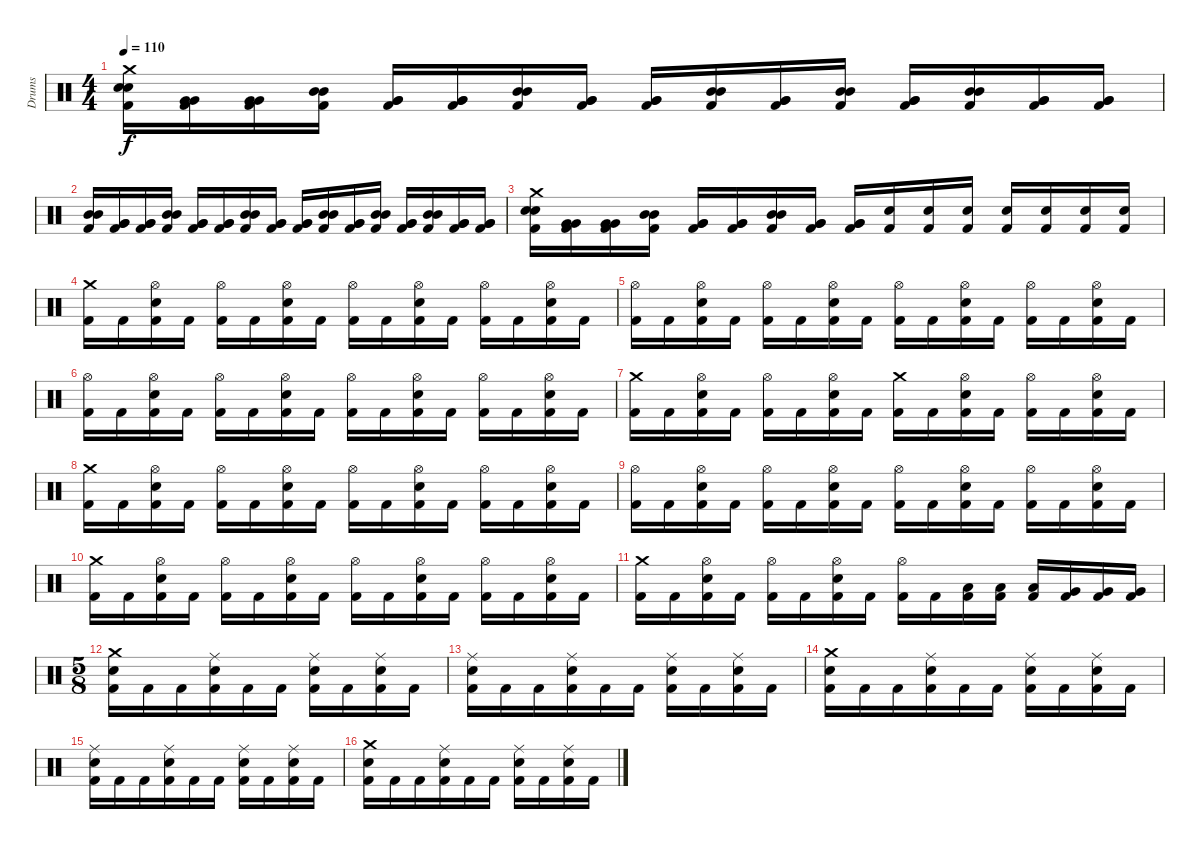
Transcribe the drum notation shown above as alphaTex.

\track ("Drums" "Drums") {instrument percussion}
\staff {score}
\articulation defaults
\ts (4 4)
\tempo 110
\clef neutral
\ks c
("Crash medium (hit)" "Electric Snare (hit)" "Electric Snare (hit)" "Kick (hit) 2").16{dy f} ("Very Low Tom (hit)" "Very Low Tom (hit)" "Kick (hit) 2").16 ("Very Low Tom (hit)" "Very Low Tom (hit)" "Kick (hit) 2").16 ("Mid Tom (hit)" "Mid Tom (hit)" "Kick (hit) 2").16 ("Very Low Tom (hit)" "Very Low Tom (hit)" "Kick (hit) 2").16 ("Very Low Tom (hit)" "Very Low Tom (hit)" "Kick (hit) 2").16 ("Mid Tom (hit)" "Mid Tom (hit)" "Kick (hit) 2").16 ("Very Low Tom (hit)" "Very Low Tom (hit)" "Kick (hit) 2").16 ("Very Low Tom (hit)" "Very Low Tom (hit)" "Kick (hit) 2").16 ("Mid Tom (hit)" "Mid Tom (hit)" "Kick (hit) 2").16 ("Very Low Tom (hit)" "Very Low Tom (hit)" "Kick (hit) 2").16 ("Mid Tom (hit)" "Mid Tom (hit)" "Kick (hit) 2").16 ("Very Low Tom (hit)" "Very Low Tom (hit)" "Kick (hit) 2").16 ("Mid Tom (hit)" "Mid Tom (hit)" "Kick (hit) 2").16 ("Very Low Tom (hit)" "Very Low Tom (hit)" "Kick (hit) 2").16 ("Very Low Tom (hit)" "Very Low Tom (hit)" "Kick (hit) 2").16 |
("Mid Tom (hit)" "Mid Tom (hit)" "Kick (hit) 2").16 ("Very Low Tom (hit)" "Very Low Tom (hit)" "Kick (hit) 2").16 ("Very Low Tom (hit)" "Very Low Tom (hit)" "Kick (hit) 2").16 ("Mid Tom (hit)" "Mid Tom (hit)" "Kick (hit) 2").16 ("Very Low Tom (hit)" "Very Low Tom (hit)" "Kick (hit) 2").16 ("Very Low Tom (hit)" "Very Low Tom (hit)" "Kick (hit) 2").16 ("Mid Tom (hit)" "Mid Tom (hit)" "Kick (hit) 2").16 ("Very Low Tom (hit)" "Very Low Tom (hit)" "Kick (hit) 2").16 ("Very Low Tom (hit)" "Very Low Tom (hit)" "Kick (hit) 2").16 ("Mid Tom (hit)" "Mid Tom (hit)" "Kick (hit) 2").16 ("Very Low Tom (hit)" "Very Low Tom (hit)" "Kick (hit) 2").16 ("Mid Tom (hit)" "Mid Tom (hit)" "Kick (hit) 2").16 ("Very Low Tom (hit)" "Very Low Tom (hit)" "Kick (hit) 2").16 ("Mid Tom (hit)" "Mid Tom (hit)" "Kick (hit) 2").16 ("Very Low Tom (hit)" "Very Low Tom (hit)" "Kick (hit) 2").16 ("Very Low Tom (hit)" "Very Low Tom (hit)" "Kick (hit) 2").16 |
("Crash medium (hit)" "Electric Snare (hit)" "Electric Snare (hit)" "Kick (hit) 2").16 ("Very Low Tom (hit)" "Very Low Tom (hit)" "Kick (hit) 2").16 ("Very Low Tom (hit)" "Very Low Tom (hit)" "Kick (hit) 2").16 ("Mid Tom (hit)" "Mid Tom (hit)" "Kick (hit) 2").16 ("Very Low Tom (hit)" "Very Low Tom (hit)" "Kick (hit) 2").16 ("Very Low Tom (hit)" "Very Low Tom (hit)" "Kick (hit) 2").16 ("Mid Tom (hit)" "Mid Tom (hit)" "Kick (hit) 2").16 ("Very Low Tom (hit)" "Very Low Tom (hit)" "Kick (hit) 2").16 ("Very Low Tom (hit)" "Very Low Tom (hit)" "Kick (hit) 2").16 ("Electric Snare (hit)" "Kick (hit) 2").16 ("Electric Snare (hit)" "Kick (hit) 2").16 ("Electric Snare (hit)" "Kick (hit) 2").16 ("Electric Snare (hit)" "Kick (hit) 2").16 ("Electric Snare (hit)" "Kick (hit) 2").16 ("Electric Snare (hit)" "Kick (hit) 2").16 ("Electric Snare (hit)" "Kick (hit) 2").16 |
("Crash medium (hit)" "Kick (hit) 2").16 "Kick (hit) 2".16 ("Hi-Hat (open)" "Electric Snare (hit)" "Kick (hit) 2").16 "Kick (hit) 2".16 ("Hi-Hat (open)" "Kick (hit) 2").16 "Kick (hit) 2".16 ("Hi-Hat (open)" "Electric Snare (hit)" "Kick (hit) 2").16 "Kick (hit) 2".16 ("Hi-Hat (open)" "Kick (hit) 2").16 "Kick (hit) 2".16 ("Hi-Hat (open)" "Electric Snare (hit)" "Kick (hit) 2").16 "Kick (hit) 2".16 ("Hi-Hat (open)" "Kick (hit) 2").16 "Kick (hit) 2".16 ("Hi-Hat (open)" "Electric Snare (hit)" "Kick (hit) 2").16 "Kick (hit) 2".16 |
("Hi-Hat (open)" "Kick (hit) 2").16 "Kick (hit) 2".16 ("Hi-Hat (open)" "Electric Snare (hit)" "Kick (hit) 2").16 "Kick (hit) 2".16 ("Hi-Hat (open)" "Kick (hit) 2").16 "Kick (hit) 2".16 ("Hi-Hat (open)" "Electric Snare (hit)" "Kick (hit) 2").16 "Kick (hit) 2".16 ("Hi-Hat (open)" "Kick (hit) 2").16 "Kick (hit) 2".16 ("Hi-Hat (open)" "Electric Snare (hit)" "Kick (hit) 2").16 "Kick (hit) 2".16 ("Hi-Hat (open)" "Kick (hit) 2").16 "Kick (hit) 2".16 ("Hi-Hat (open)" "Electric Snare (hit)" "Kick (hit) 2").16 "Kick (hit) 2".16 |
("Hi-Hat (open)" "Kick (hit) 2").16 "Kick (hit) 2".16 ("Hi-Hat (open)" "Electric Snare (hit)" "Kick (hit) 2").16 "Kick (hit) 2".16 ("Hi-Hat (open)" "Kick (hit) 2").16 "Kick (hit) 2".16 ("Hi-Hat (open)" "Electric Snare (hit)" "Kick (hit) 2").16 "Kick (hit) 2".16 ("Hi-Hat (open)" "Kick (hit) 2").16 "Kick (hit) 2".16 ("Hi-Hat (open)" "Electric Snare (hit)" "Kick (hit) 2").16 "Kick (hit) 2".16 ("Hi-Hat (open)" "Kick (hit) 2").16 "Kick (hit) 2".16 ("Hi-Hat (open)" "Electric Snare (hit)" "Kick (hit) 2").16 "Kick (hit) 2".16 |
("Crash medium (hit)" "Kick (hit) 2").16 "Kick (hit) 2".16 ("Hi-Hat (open)" "Electric Snare (hit)" "Kick (hit) 2").16 "Kick (hit) 2".16 ("Hi-Hat (open)" "Kick (hit) 2").16 "Kick (hit) 2".16 ("Hi-Hat (open)" "Electric Snare (hit)" "Kick (hit) 2").16 "Kick (hit) 2".16 ("Crash medium (hit)" "Kick (hit) 2").16 "Kick (hit) 2".16 ("Hi-Hat (open)" "Electric Snare (hit)" "Kick (hit) 2").16 "Kick (hit) 2".16 ("Hi-Hat (open)" "Kick (hit) 2").16 "Kick (hit) 2".16 ("Hi-Hat (open)" "Electric Snare (hit)" "Kick (hit) 2").16 "Kick (hit) 2".16 |
("Crash medium (hit)" "Kick (hit) 2").16 "Kick (hit) 2".16 ("Hi-Hat (open)" "Electric Snare (hit)" "Kick (hit) 2").16 "Kick (hit) 2".16 ("Hi-Hat (open)" "Kick (hit) 2").16 "Kick (hit) 2".16 ("Hi-Hat (open)" "Electric Snare (hit)" "Kick (hit) 2").16 "Kick (hit) 2".16 ("Hi-Hat (open)" "Kick (hit) 2").16 "Kick (hit) 2".16 ("Hi-Hat (open)" "Electric Snare (hit)" "Kick (hit) 2").16 "Kick (hit) 2".16 ("Hi-Hat (open)" "Kick (hit) 2").16 "Kick (hit) 2".16 ("Hi-Hat (open)" "Electric Snare (hit)" "Kick (hit) 2").16 "Kick (hit) 2".16 |
("Hi-Hat (open)" "Kick (hit) 2").16 "Kick (hit) 2".16 ("Hi-Hat (open)" "Electric Snare (hit)" "Kick (hit) 2").16 "Kick (hit) 2".16 ("Hi-Hat (open)" "Kick (hit) 2").16 "Kick (hit) 2".16 ("Hi-Hat (open)" "Electric Snare (hit)" "Kick (hit) 2").16 "Kick (hit) 2".16 ("Hi-Hat (open)" "Kick (hit) 2").16 "Kick (hit) 2".16 ("Hi-Hat (open)" "Electric Snare (hit)" "Kick (hit) 2").16 "Kick (hit) 2".16 ("Hi-Hat (open)" "Kick (hit) 2").16 "Kick (hit) 2".16 ("Hi-Hat (open)" "Electric Snare (hit)" "Kick (hit) 2").16 "Kick (hit) 2".16 |
("Crash medium (hit)" "Kick (hit) 2").16 "Kick (hit) 2".16 ("Hi-Hat (open)" "Electric Snare (hit)" "Kick (hit) 2").16 "Kick (hit) 2".16 ("Hi-Hat (open)" "Kick (hit) 2").16 "Kick (hit) 2".16 ("Hi-Hat (open)" "Electric Snare (hit)" "Kick (hit) 2").16 "Kick (hit) 2".16 ("Hi-Hat (open)" "Kick (hit) 2").16 "Kick (hit) 2".16 ("Hi-Hat (open)" "Electric Snare (hit)" "Kick (hit) 2").16 "Kick (hit) 2".16 ("Hi-Hat (open)" "Kick (hit) 2").16 "Kick (hit) 2".16 ("Hi-Hat (open)" "Electric Snare (hit)" "Kick (hit) 2").16 "Kick (hit) 2".16 |
("Crash medium (hit)" "Kick (hit) 2").16 "Kick (hit) 2".16 ("Hi-Hat (open)" "Electric Snare (hit)" "Kick (hit) 2").16 "Kick (hit) 2".16 ("Hi-Hat (open)" "Kick (hit) 2").16 "Kick (hit) 2".16 ("Hi-Hat (open)" "Electric Snare (hit)" "Kick (hit) 2").16 "Kick (hit) 2".16 ("Hi-Hat (open)" "Kick (hit) 2").16 "Kick (hit) 2".16 ("Low Tom (hit)" "Kick (hit) 2").16 ("Low Tom (hit)" "Kick (hit) 2").16 ("Low Tom (hit)" "Kick (hit) 2").16 ("Very Low Tom (hit)" "Kick (hit) 2").16 ("Very Low Tom (hit)" "Kick (hit) 2").16 ("Very Low Tom (hit)" "Kick (hit) 2").16 |
\ts (5 8)
("Crash medium (hit)" "Electric Snare (hit)" "Kick (hit) 2").16 "Kick (hit) 2".16 "Kick (hit) 2".16 ("Ride (middle)" "Electric Snare (hit)" "Kick (hit) 2").16 "Kick (hit) 2".16 "Kick (hit) 2".16 ("Ride (middle)" "Electric Snare (hit)" "Kick (hit) 2").16 "Kick (hit) 2".16 ("Ride (middle)" "Electric Snare (hit)" "Kick (hit) 2").16 "Kick (hit) 2".16 |
("Ride (middle)" "Electric Snare (hit)" "Kick (hit) 2").16 "Kick (hit) 2".16 "Kick (hit) 2".16 ("Ride (middle)" "Electric Snare (hit)" "Kick (hit) 2").16 "Kick (hit) 2".16 "Kick (hit) 2".16 ("Ride (middle)" "Electric Snare (hit)" "Kick (hit) 2").16 "Kick (hit) 2".16 ("Ride (middle)" "Electric Snare (hit)" "Kick (hit) 2").16 "Kick (hit) 2".16 |
("Crash medium (hit)" "Electric Snare (hit)" "Kick (hit) 2").16 "Kick (hit) 2".16 "Kick (hit) 2".16 ("Ride (middle)" "Electric Snare (hit)" "Kick (hit) 2").16 "Kick (hit) 2".16 "Kick (hit) 2".16 ("Ride (middle)" "Electric Snare (hit)" "Kick (hit) 2").16 "Kick (hit) 2".16 ("Ride (middle)" "Electric Snare (hit)" "Kick (hit) 2").16 "Kick (hit) 2".16 |
("Ride (middle)" "Electric Snare (hit)" "Kick (hit) 2").16 "Kick (hit) 2".16 "Kick (hit) 2".16 ("Ride (middle)" "Electric Snare (hit)" "Kick (hit) 2").16 "Kick (hit) 2".16 "Kick (hit) 2".16 ("Ride (middle)" "Electric Snare (hit)" "Kick (hit) 2").16 "Kick (hit) 2".16 ("Ride (middle)" "Electric Snare (hit)" "Kick (hit) 2").16 "Kick (hit) 2".16 |
("Crash medium (hit)" "Electric Snare (hit)" "Kick (hit) 2").16 "Kick (hit) 2".16 "Kick (hit) 2".16 ("Ride (middle)" "Electric Snare (hit)" "Kick (hit) 2").16 "Kick (hit) 2".16 "Kick (hit) 2".16 ("Ride (middle)" "Electric Snare (hit)" "Kick (hit) 2").16 "Kick (hit) 2".16 ("Ride (middle)" "Electric Snare (hit)" "Kick (hit) 2").16 "Kick (hit) 2".16
